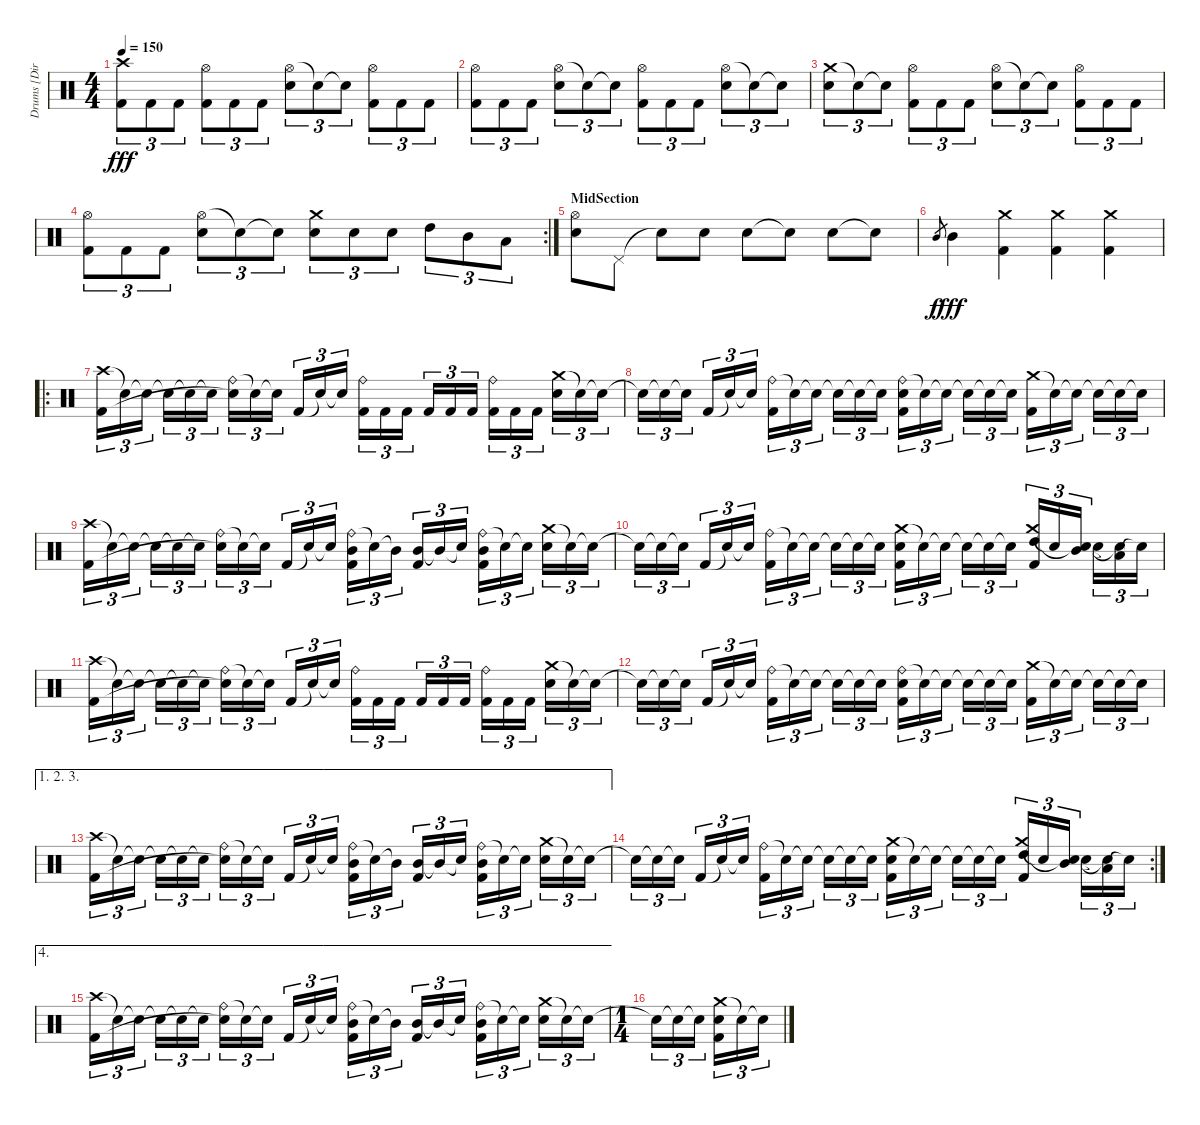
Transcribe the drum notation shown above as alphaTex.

\track ("Drums [Dirge Rep]" "Drums [Dir") {instrument percussion}
\staff {score}
\articulation defaults
\ts (4 4)
\tempo 150
\clef neutral
\ks c
("Crash high (hit)" "Kick (hit) 2").8{tu (3 2) dy fff} "Kick (hit) 2".8{tu (3 2)} "Kick (hit) 2".8{tu (3 2)} ("Hi-Hat (open)" "Kick (hit) 2").8{tu (3 2)} "Kick (hit) 2".8{tu (3 2)} "Kick (hit) 2".8{tu (3 2)} ("Hi-Hat (open)" "Electric Snare (hit)").8{tu (3 2)} "Snare (hit)"{t}.8{tu (3 2)} "Snare (hit)"{t}.8{tu (3 2)} ("Hi-Hat (open)" "Kick (hit) 2").8{tu (3 2)} "Kick (hit) 2".8{tu (3 2)} "Kick (hit) 2".8{tu (3 2)} |
("Hi-Hat (open)" "Kick (hit) 2").8{tu (3 2)} "Kick (hit) 2".8{tu (3 2)} "Kick (hit) 2".8{tu (3 2)} ("Hi-Hat (open)" "Electric Snare (hit)").8{tu (3 2)} "Snare (hit)"{t}.8{tu (3 2)} "Snare (hit)"{t}.8{tu (3 2)} ("Hi-Hat (open)" "Kick (hit) 2").8{tu (3 2)} "Kick (hit) 2".8{tu (3 2)} "Kick (hit) 2".8{tu (3 2)} ("Hi-Hat (open)" "Electric Snare (hit)").8{tu (3 2)} "Snare (hit)"{t}.8{tu (3 2)} "Snare (hit)"{t}.8{tu (3 2)} |
("Crash medium (hit)" "Electric Snare (hit)").8{tu (3 2)} "Snare (hit)"{t}.8{tu (3 2)} "Snare (hit)"{t}.8{tu (3 2)} ("Hi-Hat (open)" "Kick (hit) 2").8{tu (3 2)} "Kick (hit) 2".8{tu (3 2)} "Kick (hit) 2".8{tu (3 2)} ("Hi-Hat (open)" "Electric Snare (hit)").8{tu (3 2)} "Snare (hit)"{t}.8{tu (3 2)} "Snare (hit)"{t}.8{tu (3 2)} ("Hi-Hat (open)" "Kick (hit) 2").8{tu (3 2)} "Kick (hit) 2".8{tu (3 2)} "Kick (hit) 2".8{tu (3 2)} |
\rc 2
("Hi-Hat (open)" "Kick (hit) 2").8{tu (3 2)} "Kick (hit) 2".8{tu (3 2)} "Kick (hit) 2".8{tu (3 2)} ("Hi-Hat (open)" "Electric Snare (hit)").8{tu (3 2)} "Snare (hit)"{t}.8{tu (3 2)} "Snare (hit)"{t}.8{tu (3 2)} ("Crash medium (hit)" "Electric Snare (hit)").8{tu (3 2)} "Electric Snare (hit)".8{tu (3 2)} "Electric Snare (hit)".8{tu (3 2)} "High Tom (hit)".8{tu (3 2)} "Mid Tom (hit)".8{tu (3 2)} "Low Tom (hit)".8{tu (3 2)} |
\section ("" "MidSection")
("Hi-Hat (open)" "Electric Snare (hit)").8 "Pedal Hi-Hat (hit)".8 "Snare (hit)"{t}.8 "Electric Snare (hit)".8 "Electric Snare (hit)".8 "Snare (hit)"{t}.8 "Electric Snare (hit)".8 "Snare (hit)"{t}.8 |
"Mid Tom (hit)".8{gr dy f} "Mid Tom (hit)".4{dy fff} ("Crash medium (hit)" "Kick (hit) 2").4 ("Crash medium (hit)" "Kick (hit) 2").4 ("Crash medium (hit)" "Kick (hit) 2").4 |
\ro
("Crash high (hit)" "Kick (hit) 2").16{tu (3 2)} "Snare (hit)"{t}.16{tu (3 2)} "Snare (hit)"{t}.16{tu (3 2)} "Snare (hit)"{t}.16{tu (3 2)} "Snare (hit)"{t}.16{tu (3 2)} "Snare (hit)"{t}.16{tu (3 2)} ("Ride (bell)" "Snare (hit)"{t}).16{tu (3 2)} "Snare (hit)"{t}.16{tu (3 2)} "Snare (hit)"{t}.16{tu (3 2)} "Kick (hit) 2".16{tu (3 2)} "Snare (hit)"{t}.16{tu (3 2)} "Snare (hit)"{t}.16{tu (3 2)} ("Ride (bell)" "Kick (hit) 2").16{tu (3 2)} "Kick (hit) 2".16{tu (3 2)} "Kick (hit) 2".16{tu (3 2)} "Kick (hit) 2".16{tu (3 2)} "Kick (hit) 2".16{tu (3 2)} "Kick (hit) 2".16{tu (3 2)} ("Ride (bell)" "Kick (hit) 2").16{tu (3 2)} "Kick (hit) 2".16{tu (3 2)} "Kick (hit) 2".16{tu (3 2)} ("Crash medium (hit)" "Electric Snare (hit)").16{tu (3 2)} "Snare (hit)"{t}.16{tu (3 2)} "Snare (hit)"{t}.16{tu (3 2)} |
"Snare (hit)"{t}.16{tu (3 2)} "Snare (hit)"{t}.16{tu (3 2)} "Snare (hit)"{t}.16{tu (3 2)} "Kick (hit) 2".16{tu (3 2)} "Snare (hit)"{t}.16{tu (3 2)} "Snare (hit)"{t}.16{tu (3 2)} ("Ride (bell)" "Kick (hit) 2").16{tu (3 2)} "Snare (hit)"{t}.16{tu (3 2)} "Snare (hit)"{t}.16{tu (3 2)} "Snare (hit)"{t}.16{tu (3 2)} "Snare (hit)"{t}.16{tu (3 2)} "Snare (hit)"{t}.16{tu (3 2)} ("Ride (bell)" "Electric Snare (hit)" "Kick (hit) 2").16{tu (3 2)} "Snare (hit)"{t}.16{tu (3 2)} "Snare (hit)"{t}.16{tu (3 2)} "Snare (hit)"{t}.16{tu (3 2)} "Snare (hit)"{t}.16{tu (3 2)} "Snare (hit)"{t}.16{tu (3 2)} ("Crash medium (hit)" "Kick (hit) 2").16{tu (3 2)} "Snare (hit)"{t}.16{tu (3 2)} "Snare (hit)"{t}.16{tu (3 2)} "Snare (hit)"{t}.16{tu (3 2)} "Snare (hit)"{t}.16{tu (3 2)} "Snare (hit)"{t}.16{tu (3 2)} |
("Crash high (hit)" "Kick (hit) 2").16{tu (3 2)} "Snare (hit)"{t}.16{tu (3 2)} "Snare (hit)"{t}.16{tu (3 2)} "Snare (hit)"{t}.16{tu (3 2)} "Snare (hit)"{t}.16{tu (3 2)} "Snare (hit)"{t}.16{tu (3 2)} ("Ride (bell)" "Snare (hit)"{t}).16{tu (3 2)} "Snare (hit)"{t}.16{tu (3 2)} "Snare (hit)"{t}.16{tu (3 2)} "Kick (hit) 2".16{tu (3 2)} "Snare (hit)"{t}.16{tu (3 2)} "Snare (hit)"{t}.16{tu (3 2)} ("Ride (bell)" "Mid Tom (hit)" "Kick (hit) 2").16{tu (3 2)} "Snare (hit)"{t}.16{tu (3 2)} "Mid Tom (hit)"{t}.16{tu (3 2)} ("Mid Tom (hit)" "Kick (hit) 2").16{tu (3 2)} "Mid Tom (hit)"{t}.16{tu (3 2)} "Snare (hit)"{t}.16{tu (3 2)} ("Ride (bell)" "Mid Tom (hit)" "Kick (hit) 2").16{tu (3 2)} "Snare (hit)"{t}.16{tu (3 2)} "Snare (hit)"{t}.16{tu (3 2)} ("Crash medium (hit)" "Electric Snare (hit)").16{tu (3 2)} "Snare (hit)"{t}.16{tu (3 2)} "Snare (hit)"{t}.16{tu (3 2)} |
"Snare (hit)"{t}.16{tu (3 2)} "Snare (hit)"{t}.16{tu (3 2)} "Snare (hit)"{t}.16{tu (3 2)} "Kick (hit) 2".16{tu (3 2)} "Snare (hit)"{t}.16{tu (3 2)} "Snare (hit)"{t}.16{tu (3 2)} ("Ride (bell)" "Kick (hit) 2").16{tu (3 2)} "Snare (hit)"{t}.16{tu (3 2)} "Snare (hit)"{t}.16{tu (3 2)} "Snare (hit)"{t}.16{tu (3 2)} "Snare (hit)"{t}.16{tu (3 2)} "Snare (hit)"{t}.16{tu (3 2)} ("Crash medium (hit)" "Electric Snare (hit)" "Kick (hit) 2").16{tu (3 2)} "Snare (hit)"{t}.16{tu (3 2)} "Snare (hit)"{t}.16{tu (3 2)} "Snare (hit)"{t}.16{tu (3 2)} "Snare (hit)"{t}.16{tu (3 2)} "Snare (hit)"{t}.16{tu (3 2)} ("Crash medium (hit)" "High Tom (hit)" "Kick (hit) 2").16{tu (3 2)} "Snare (hit)"{t}.16{tu (3 2)} ("Mid Tom (hit)" "Snare (hit)"{t}).16{tu (3 2)} "Snare (hit)"{t}.16{tu (3 2)} ("Low Tom (hit)" "Snare (hit)"{t}).16{tu (3 2)} "Snare (hit)"{t}.16{tu (3 2)} |
("Crash high (hit)" "Kick (hit) 2").16{tu (3 2)} "Snare (hit)"{t}.16{tu (3 2)} "Snare (hit)"{t}.16{tu (3 2)} "Snare (hit)"{t}.16{tu (3 2)} "Snare (hit)"{t}.16{tu (3 2)} "Snare (hit)"{t}.16{tu (3 2)} ("Ride (bell)" "Snare (hit)"{t}).16{tu (3 2)} "Snare (hit)"{t}.16{tu (3 2)} "Snare (hit)"{t}.16{tu (3 2)} "Kick (hit) 2".16{tu (3 2)} "Snare (hit)"{t}.16{tu (3 2)} "Snare (hit)"{t}.16{tu (3 2)} ("Ride (bell)" "Kick (hit) 2").16{tu (3 2)} "Kick (hit) 2".16{tu (3 2)} "Kick (hit) 2".16{tu (3 2)} "Kick (hit) 2".16{tu (3 2)} "Kick (hit) 2".16{tu (3 2)} "Kick (hit) 2".16{tu (3 2)} ("Ride (bell)" "Kick (hit) 2").16{tu (3 2)} "Kick (hit) 2".16{tu (3 2)} "Kick (hit) 2".16{tu (3 2)} ("Crash medium (hit)" "Electric Snare (hit)").16{tu (3 2)} "Snare (hit)"{t}.16{tu (3 2)} "Snare (hit)"{t}.16{tu (3 2)} |
"Snare (hit)"{t}.16{tu (3 2)} "Snare (hit)"{t}.16{tu (3 2)} "Snare (hit)"{t}.16{tu (3 2)} "Kick (hit) 2".16{tu (3 2)} "Snare (hit)"{t}.16{tu (3 2)} "Snare (hit)"{t}.16{tu (3 2)} ("Ride (bell)" "Kick (hit) 2").16{tu (3 2)} "Snare (hit)"{t}.16{tu (3 2)} "Snare (hit)"{t}.16{tu (3 2)} "Snare (hit)"{t}.16{tu (3 2)} "Snare (hit)"{t}.16{tu (3 2)} "Snare (hit)"{t}.16{tu (3 2)} ("Ride (bell)" "Electric Snare (hit)" "Kick (hit) 2").16{tu (3 2)} "Snare (hit)"{t}.16{tu (3 2)} "Snare (hit)"{t}.16{tu (3 2)} "Snare (hit)"{t}.16{tu (3 2)} "Snare (hit)"{t}.16{tu (3 2)} "Snare (hit)"{t}.16{tu (3 2)} ("Crash medium (hit)" "Kick (hit) 2").16{tu (3 2)} "Snare (hit)"{t}.16{tu (3 2)} "Snare (hit)"{t}.16{tu (3 2)} "Snare (hit)"{t}.16{tu (3 2)} "Snare (hit)"{t}.16{tu (3 2)} "Snare (hit)"{t}.16{tu (3 2)} |
\ae (1 2 3)
("Crash high (hit)" "Kick (hit) 2").16{tu (3 2)} "Snare (hit)"{t}.16{tu (3 2)} "Snare (hit)"{t}.16{tu (3 2)} "Snare (hit)"{t}.16{tu (3 2)} "Snare (hit)"{t}.16{tu (3 2)} "Snare (hit)"{t}.16{tu (3 2)} ("Ride (bell)" "Snare (hit)"{t}).16{tu (3 2)} "Snare (hit)"{t}.16{tu (3 2)} "Snare (hit)"{t}.16{tu (3 2)} "Kick (hit) 2".16{tu (3 2)} "Snare (hit)"{t}.16{tu (3 2)} "Snare (hit)"{t}.16{tu (3 2)} ("Ride (bell)" "Mid Tom (hit)" "Kick (hit) 2").16{tu (3 2)} "Snare (hit)"{t}.16{tu (3 2)} "Mid Tom (hit)"{t}.16{tu (3 2)} ("Mid Tom (hit)" "Kick (hit) 2").16{tu (3 2)} "Mid Tom (hit)"{t}.16{tu (3 2)} "Snare (hit)"{t}.16{tu (3 2)} ("Ride (bell)" "Mid Tom (hit)" "Kick (hit) 2").16{tu (3 2)} "Snare (hit)"{t}.16{tu (3 2)} "Snare (hit)"{t}.16{tu (3 2)} ("Crash medium (hit)" "Electric Snare (hit)").16{tu (3 2)} "Snare (hit)"{t}.16{tu (3 2)} "Snare (hit)"{t}.16{tu (3 2)} |
\rc 2 "Snare (hit)"{t}.16{tu (3 2)} "Snare (hit)"{t}.16{tu (3 2)} "Snare (hit)"{t}.16{tu (3 2)} "Kick (hit) 2".16{tu (3 2)} "Snare (hit)"{t}.16{tu (3 2)} "Snare (hit)"{t}.16{tu (3 2)}
("Ride (bell)" "Kick (hit) 2").16{tu (3 2)} "Snare (hit)"{t}.16{tu (3 2)} "Snare (hit)"{t}.16{tu (3 2)} "Snare (hit)"{t}.16{tu (3 2)} "Snare (hit)"{t}.16{tu (3 2)} "Snare (hit)"{t}.16{tu (3 2)} ("Crash medium (hit)" "Electric Snare (hit)" "Kick (hit) 2").16{tu (3 2)} "Snare (hit)"{t}.16{tu (3 2)} "Snare (hit)"{t}.16{tu (3 2)} "Snare (hit)"{t}.16{tu (3 2)} "Snare (hit)"{t}.16{tu (3 2)} "Snare (hit)"{t}.16{tu (3 2)} ("Crash medium (hit)" "High Tom (hit)" "Kick (hit) 2").16{tu (3 2)} "Snare (hit)"{t}.16{tu (3 2)} ("Mid Tom (hit)" "Snare (hit)"{t}).16{tu (3 2)} "Snare (hit)"{t}.16{tu (3 2)} ("Low Tom (hit)" "Snare (hit)"{t}).16{tu (3 2)} "Snare (hit)"{t}.16{tu (3 2)} |
\ae 4
("Crash high (hit)" "Kick (hit) 2").16{tu (3 2)} "Snare (hit)"{t}.16{tu (3 2)} "Snare (hit)"{t}.16{tu (3 2)} "Snare (hit)"{t}.16{tu (3 2)} "Snare (hit)"{t}.16{tu (3 2)} "Snare (hit)"{t}.16{tu (3 2)} ("Ride (bell)" "Snare (hit)"{t}).16{tu (3 2)} "Snare (hit)"{t}.16{tu (3 2)} "Snare (hit)"{t}.16{tu (3 2)} "Kick (hit) 2".16{tu (3 2)} "Snare (hit)"{t}.16{tu (3 2)} "Snare (hit)"{t}.16{tu (3 2)} ("Ride (bell)" "Mid Tom (hit)" "Kick (hit) 2").16{tu (3 2)} "Snare (hit)"{t}.16{tu (3 2)} "Mid Tom (hit)"{t}.16{tu (3 2)} ("Mid Tom (hit)" "Kick (hit) 2").16{tu (3 2)} "Mid Tom (hit)"{t}.16{tu (3 2)} "Snare (hit)"{t}.16{tu (3 2)} ("Ride (bell)" "Mid Tom (hit)" "Kick (hit) 2").16{tu (3 2)} "Snare (hit)"{t}.16{tu (3 2)} "Snare (hit)"{t}.16{tu (3 2)} ("Crash medium (hit)" "Electric Snare (hit)").16{tu (3 2)} "Snare (hit)"{t}.16{tu (3 2)} "Snare (hit)"{t}.16{tu (3 2)} |
\ts (1 4)
"Snare (hit)"{t}.16{tu (3 2)} "Snare (hit)"{t}.16{tu (3 2)} "Snare (hit)"{t}.16{tu (3 2)} ("Crash medium (hit)" "Electric Snare (hit)" "Kick (hit) 2").16{tu (3 2)} "Snare (hit)"{t}.16{tu (3 2)} "Snare (hit)"{t}.16{tu (3 2)}
